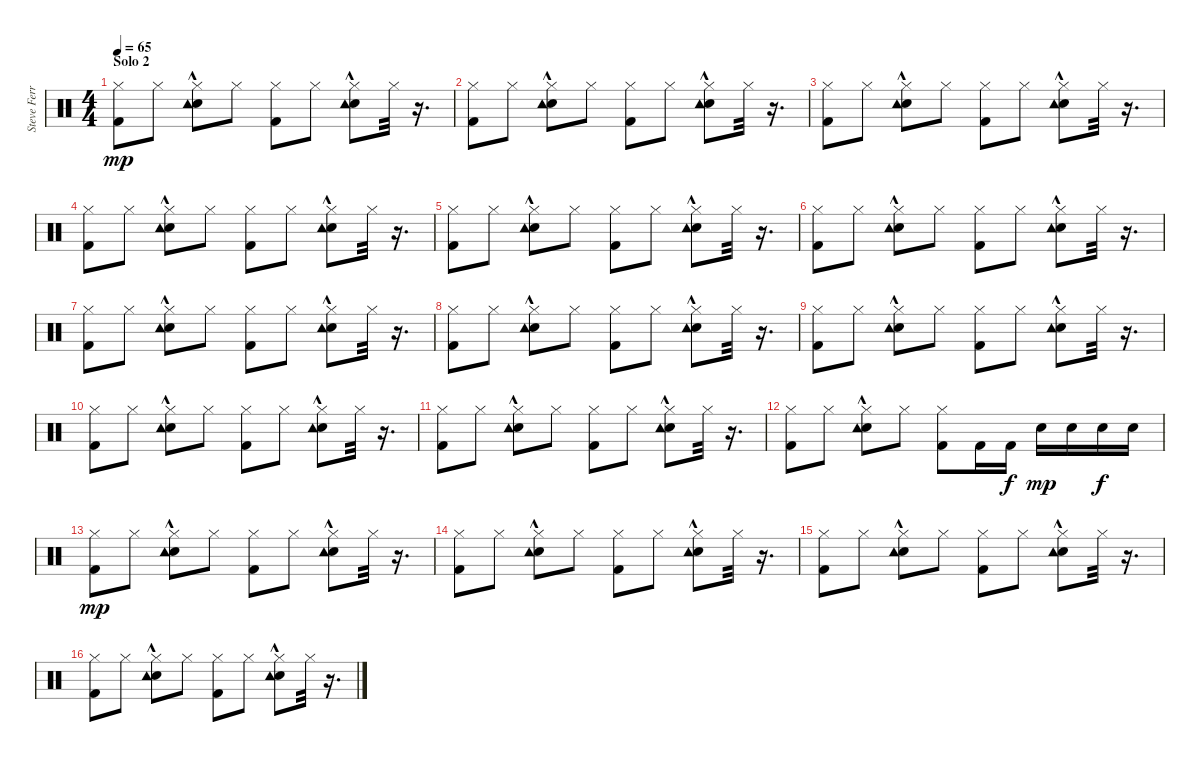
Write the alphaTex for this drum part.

\track ("Steve Ferrone & Ray Cooper" "Steve Ferr") {instrument percussion}
\staff {score}
\articulation defaults
\ts (4 4)
\section ("" "Solo 2")
\tempo 65
\clef neutral
\ks c
("Kick (hit) 2" "Hi-Hat (closed)").8{dy mp} "Hi-Hat (closed)".8 ("Hi-Hat (closed)" "Snare (hit) 2"{hac} "Tambourine (hit)"{hac}).8 "Hi-Hat (closed)".8 ("Kick (hit) 2" "Hi-Hat (closed)").8 "Hi-Hat (closed)".8 ("Hi-Hat (closed)" "Snare (hit) 2" "Tambourine (hit)"{hac}).8 "Hi-Hat (closed)".32 r.16{d} |
("Kick (hit) 2" "Hi-Hat (closed)").8 "Hi-Hat (closed)".8 ("Hi-Hat (closed)" "Snare (hit) 2"{hac} "Tambourine (hit)"{hac}).8 "Hi-Hat (closed)".8 ("Kick (hit) 2" "Hi-Hat (closed)").8 "Hi-Hat (closed)".8 ("Hi-Hat (closed)" "Snare (hit) 2" "Tambourine (hit)"{hac}).8 "Hi-Hat (closed)".32 r.16{d} |
("Kick (hit) 2" "Hi-Hat (closed)").8 "Hi-Hat (closed)".8 ("Hi-Hat (closed)" "Snare (hit) 2"{hac} "Tambourine (hit)"{hac}).8 "Hi-Hat (closed)".8 ("Kick (hit) 2" "Hi-Hat (closed)").8 "Hi-Hat (closed)".8 ("Hi-Hat (closed)" "Snare (hit) 2" "Tambourine (hit)"{hac}).8 "Hi-Hat (closed)".32 r.16{d} |
("Kick (hit) 2" "Hi-Hat (closed)").8 "Hi-Hat (closed)".8 ("Hi-Hat (closed)" "Snare (hit) 2"{hac} "Tambourine (hit)"{hac}).8 "Hi-Hat (closed)".8 ("Kick (hit) 2" "Hi-Hat (closed)").8 "Hi-Hat (closed)".8 ("Hi-Hat (closed)" "Snare (hit) 2" "Tambourine (hit)"{hac}).8 "Hi-Hat (closed)".32 r.16{d} |
("Kick (hit) 2" "Hi-Hat (closed)").8 "Hi-Hat (closed)".8 ("Hi-Hat (closed)" "Snare (hit) 2"{hac} "Tambourine (hit)"{hac}).8 "Hi-Hat (closed)".8 ("Kick (hit) 2" "Hi-Hat (closed)").8 "Hi-Hat (closed)".8 ("Hi-Hat (closed)" "Snare (hit) 2" "Tambourine (hit)"{hac}).8 "Hi-Hat (closed)".32 r.16{d} |
("Kick (hit) 2" "Hi-Hat (closed)").8 "Hi-Hat (closed)".8 ("Hi-Hat (closed)" "Snare (hit) 2"{hac} "Tambourine (hit)"{hac}).8 "Hi-Hat (closed)".8 ("Kick (hit) 2" "Hi-Hat (closed)").8 "Hi-Hat (closed)".8 ("Hi-Hat (closed)" "Snare (hit) 2" "Tambourine (hit)"{hac}).8 "Hi-Hat (closed)".32 r.16{d} |
("Kick (hit) 2" "Hi-Hat (closed)").8 "Hi-Hat (closed)".8 ("Hi-Hat (closed)" "Snare (hit) 2"{hac} "Tambourine (hit)"{hac}).8 "Hi-Hat (closed)".8 ("Kick (hit) 2" "Hi-Hat (closed)").8 "Hi-Hat (closed)".8 ("Hi-Hat (closed)" "Snare (hit) 2" "Tambourine (hit)"{hac}).8 "Hi-Hat (closed)".32 r.16{d} |
("Kick (hit) 2" "Hi-Hat (closed)").8 "Hi-Hat (closed)".8 ("Hi-Hat (closed)" "Snare (hit) 2"{hac} "Tambourine (hit)"{hac}).8 "Hi-Hat (closed)".8 ("Kick (hit) 2" "Hi-Hat (closed)").8 "Hi-Hat (closed)".8 ("Hi-Hat (closed)" "Snare (hit) 2" "Tambourine (hit)"{hac}).8 "Hi-Hat (closed)".32 r.16{d} |
("Kick (hit) 2" "Hi-Hat (closed)").8 "Hi-Hat (closed)".8 ("Hi-Hat (closed)" "Snare (hit) 2"{hac} "Tambourine (hit)"{hac}).8 "Hi-Hat (closed)".8 ("Kick (hit) 2" "Hi-Hat (closed)").8 "Hi-Hat (closed)".8 ("Hi-Hat (closed)" "Snare (hit) 2" "Tambourine (hit)"{hac}).8 "Hi-Hat (closed)".32 r.16{d} |
("Kick (hit) 2" "Hi-Hat (closed)").8 "Hi-Hat (closed)".8 ("Hi-Hat (closed)" "Snare (hit) 2"{hac} "Tambourine (hit)"{hac}).8 "Hi-Hat (closed)".8 ("Kick (hit) 2" "Hi-Hat (closed)").8 "Hi-Hat (closed)".8 ("Hi-Hat (closed)" "Snare (hit) 2" "Tambourine (hit)"{hac}).8 "Hi-Hat (closed)".32 r.16{d} |
("Kick (hit) 2" "Hi-Hat (closed)").8 "Hi-Hat (closed)".8 ("Hi-Hat (closed)" "Snare (hit) 2"{hac} "Tambourine (hit)"{hac}).8 "Hi-Hat (closed)".8 ("Kick (hit) 2" "Hi-Hat (closed)").8 "Hi-Hat (closed)".8 ("Hi-Hat (closed)" "Snare (hit) 2" "Tambourine (hit)"{hac}).8 "Hi-Hat (closed)".32 r.16{d} |
("Kick (hit) 2" "Hi-Hat (closed)").8 "Hi-Hat (closed)".8 ("Hi-Hat (closed)" "Snare (hit) 2"{hac} "Tambourine (hit)"{hac}).8 "Hi-Hat (closed)".8 ("Kick (hit) 2" "Hi-Hat (closed)").8 "Kick (hit) 2".16 "Kick (hit) 2".16{dy f} "Snare (hit) 2".16{dy mp} "Snare (hit) 2".16 "Snare (hit) 2".16{dy f} "Snare (hit) 2".16 |
("Kick (hit) 2" "Hi-Hat (closed)").8{dy mp} "Hi-Hat (closed)".8 ("Hi-Hat (closed)" "Snare (hit) 2"{hac} "Tambourine (hit)"{hac}).8 "Hi-Hat (closed)".8 ("Kick (hit) 2" "Hi-Hat (closed)").8 "Hi-Hat (closed)".8 ("Hi-Hat (closed)" "Snare (hit) 2" "Tambourine (hit)"{hac}).8 "Hi-Hat (closed)".32 r.16{d} |
("Kick (hit) 2" "Hi-Hat (closed)").8 "Hi-Hat (closed)".8 ("Hi-Hat (closed)" "Snare (hit) 2"{hac} "Tambourine (hit)"{hac}).8 "Hi-Hat (closed)".8 ("Kick (hit) 2" "Hi-Hat (closed)").8 "Hi-Hat (closed)".8 ("Hi-Hat (closed)" "Snare (hit) 2" "Tambourine (hit)"{hac}).8 "Hi-Hat (closed)".32 r.16{d} |
("Kick (hit) 2" "Hi-Hat (closed)").8 "Hi-Hat (closed)".8 ("Hi-Hat (closed)" "Snare (hit) 2"{hac} "Tambourine (hit)"{hac}).8 "Hi-Hat (closed)".8 ("Kick (hit) 2" "Hi-Hat (closed)").8 "Hi-Hat (closed)".8 ("Hi-Hat (closed)" "Snare (hit) 2" "Tambourine (hit)"{hac}).8 "Hi-Hat (closed)".32 r.16{d} |
("Kick (hit) 2" "Hi-Hat (closed)").8 "Hi-Hat (closed)".8 ("Hi-Hat (closed)" "Snare (hit) 2"{hac} "Tambourine (hit)"{hac}).8 "Hi-Hat (closed)".8 ("Kick (hit) 2" "Hi-Hat (closed)").8 "Hi-Hat (closed)".8 ("Hi-Hat (closed)" "Snare (hit) 2" "Tambourine (hit)"{hac}).8 "Hi-Hat (closed)".32 r.16{d}
